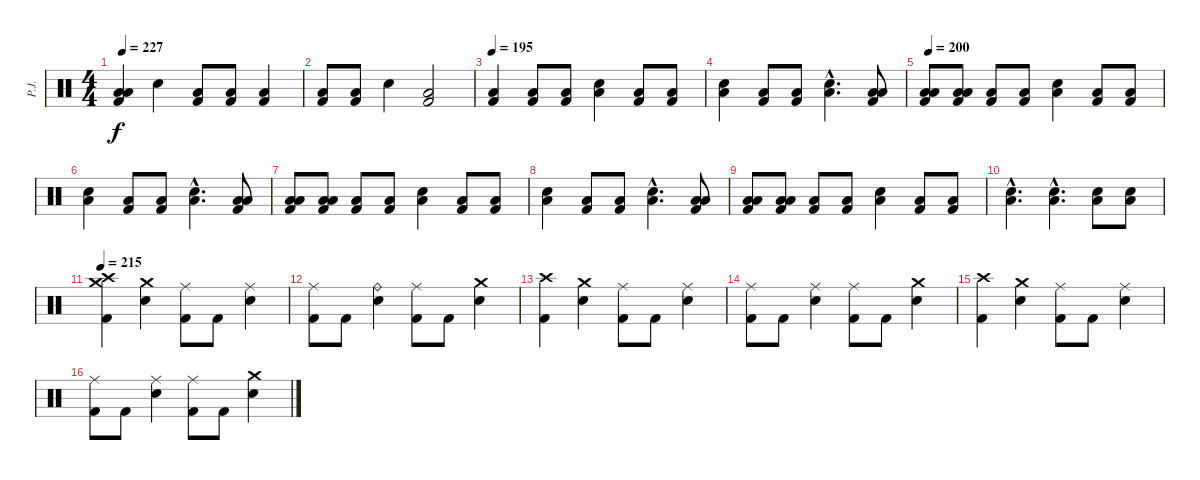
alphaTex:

\track ("P.J." "P.J.") {instrument percussion}
\staff {score}
\articulation defaults
\ts (4 4)
\tempo 227
\tempo 190
\tempo 227
\clef neutral
\ks c
("Low Tom (hit)" "Low Floor Tom (hit)" "Kick (hit) 2").4{dy f} "Electric Snare (hit)".4 ("Low Floor Tom (hit)" "Kick (hit) 2").8 ("Low Floor Tom (hit)" "Kick (hit) 2").8 ("Low Floor Tom (hit)" "Kick (hit) 2").4 |
("Low Floor Tom (hit)" "Kick (hit) 2").8 ("Low Floor Tom (hit)" "Kick (hit) 2").8 "Electric Snare (hit)".4 ("Low Floor Tom (hit)" "Kick (hit) 2").2 |
\tempo 195
("Low Floor Tom (hit)" "Kick (hit) 2").4 ("Low Floor Tom (hit)" "Kick (hit) 2").8 ("Low Floor Tom (hit)" "Kick (hit) 2").8 ("Electric Snare (hit)" "Low Floor Tom (hit)").4 ("Low Floor Tom (hit)" "Kick (hit) 2").8 ("Low Floor Tom (hit)" "Kick (hit) 2").8 |
("Electric Snare (hit)" "Low Floor Tom (hit)").4 ("Low Floor Tom (hit)" "Kick (hit) 2").8 ("Low Floor Tom (hit)" "Kick (hit) 2").8 ("Electric Snare (hit)"{hac} "Low Floor Tom (hit)"{hac}).4{d} ("Low Tom (hit)" "Low Floor Tom (hit)" "Kick (hit) 2").8 |
\tempo 200
("Low Tom (hit)" "Low Floor Tom (hit)" "Kick (hit) 2").8 ("Low Tom (hit)" "Low Floor Tom (hit)" "Kick (hit) 2").8 ("Low Floor Tom (hit)" "Kick (hit) 2").8 ("Low Floor Tom (hit)" "Kick (hit) 2").8 ("Electric Snare (hit)" "Low Floor Tom (hit)").4 ("Low Floor Tom (hit)" "Kick (hit) 2").8 ("Low Floor Tom (hit)" "Kick (hit) 2").8 |
("Electric Snare (hit)" "Low Floor Tom (hit)").4 ("Low Floor Tom (hit)" "Kick (hit) 2").8 ("Low Floor Tom (hit)" "Kick (hit) 2").8 ("Electric Snare (hit)"{hac} "Low Floor Tom (hit)"{hac}).4{d} ("Low Tom (hit)" "Low Floor Tom (hit)" "Kick (hit) 2").8 |
("Low Tom (hit)" "Low Floor Tom (hit)" "Kick (hit) 2").8 ("Low Tom (hit)" "Low Floor Tom (hit)" "Kick (hit) 2").8 ("Low Floor Tom (hit)" "Kick (hit) 2").8 ("Low Floor Tom (hit)" "Kick (hit) 2").8 ("Electric Snare (hit)" "Low Floor Tom (hit)").4 ("Low Floor Tom (hit)" "Kick (hit) 2").8 ("Low Floor Tom (hit)" "Kick (hit) 2").8 |
("Electric Snare (hit)" "Low Floor Tom (hit)").4 ("Low Floor Tom (hit)" "Kick (hit) 2").8 ("Low Floor Tom (hit)" "Kick (hit) 2").8 ("Electric Snare (hit)"{hac} "Low Floor Tom (hit)"{hac}).4{d} ("Low Tom (hit)" "Low Floor Tom (hit)" "Kick (hit) 2").8 |
("Low Tom (hit)" "Low Floor Tom (hit)" "Kick (hit) 2").8 ("Low Tom (hit)" "Low Floor Tom (hit)" "Kick (hit) 2").8 ("Low Floor Tom (hit)" "Kick (hit) 2").8 ("Low Floor Tom (hit)" "Kick (hit) 2").8 ("Electric Snare (hit)" "Low Floor Tom (hit)").4 ("Low Floor Tom (hit)" "Kick (hit) 2").8 ("Low Floor Tom (hit)" "Kick (hit) 2").8 |
("Electric Snare (hit)"{hac} "Low Floor Tom (hit)"{hac}).4{d} ("Electric Snare (hit)"{hac} "Low Floor Tom (hit)"{hac}).4{d} ("Electric Snare (hit)" "Low Floor Tom (hit)").8 ("Electric Snare (hit)" "Low Floor Tom (hit)").8 |
\tempo 215
("Crash high (hit)" "Crash medium (hit)" "Kick (hit) 2").4 ("Crash medium (hit)" "Electric Snare (hit)").4 ("Ride (middle)" "Kick (hit) 2").8 "Kick (hit) 2".8 ("Ride (middle)" "Electric Snare (hit)").4 |
("Ride (middle)" "Kick (hit) 2").8 "Kick (hit) 2".8 ("Ride (bell)" "Electric Snare (hit)").4 ("Ride (middle)" "Kick (hit) 2").8 "Kick (hit) 2".8 ("Crash medium (hit)" "Electric Snare (hit)").4 |
("Crash high (hit)" "Kick (hit) 2").4 ("Crash medium (hit)" "Electric Snare (hit)").4 ("Ride (middle)" "Kick (hit) 2").8 "Kick (hit) 2".8 ("Ride (middle)" "Electric Snare (hit)").4 |
("Ride (middle)" "Kick (hit) 2").8 "Kick (hit) 2".8 ("Ride (middle)" "Electric Snare (hit)").4 ("Ride (middle)" "Kick (hit) 2").8 "Kick (hit) 2".8 ("Crash medium (hit)" "Electric Snare (hit)").4 |
("Crash high (hit)" "Kick (hit) 2").4 ("Crash medium (hit)" "Electric Snare (hit)").4 ("Ride (middle)" "Kick (hit) 2").8 "Kick (hit) 2".8 ("Ride (middle)" "Electric Snare (hit)").4 |
("Ride (middle)" "Kick (hit) 2").8 "Kick (hit) 2".8 ("Ride (middle)" "Electric Snare (hit)").4 ("Ride (middle)" "Kick (hit) 2").8 "Kick (hit) 2".8 ("Crash medium (hit)" "Electric Snare (hit)").4
